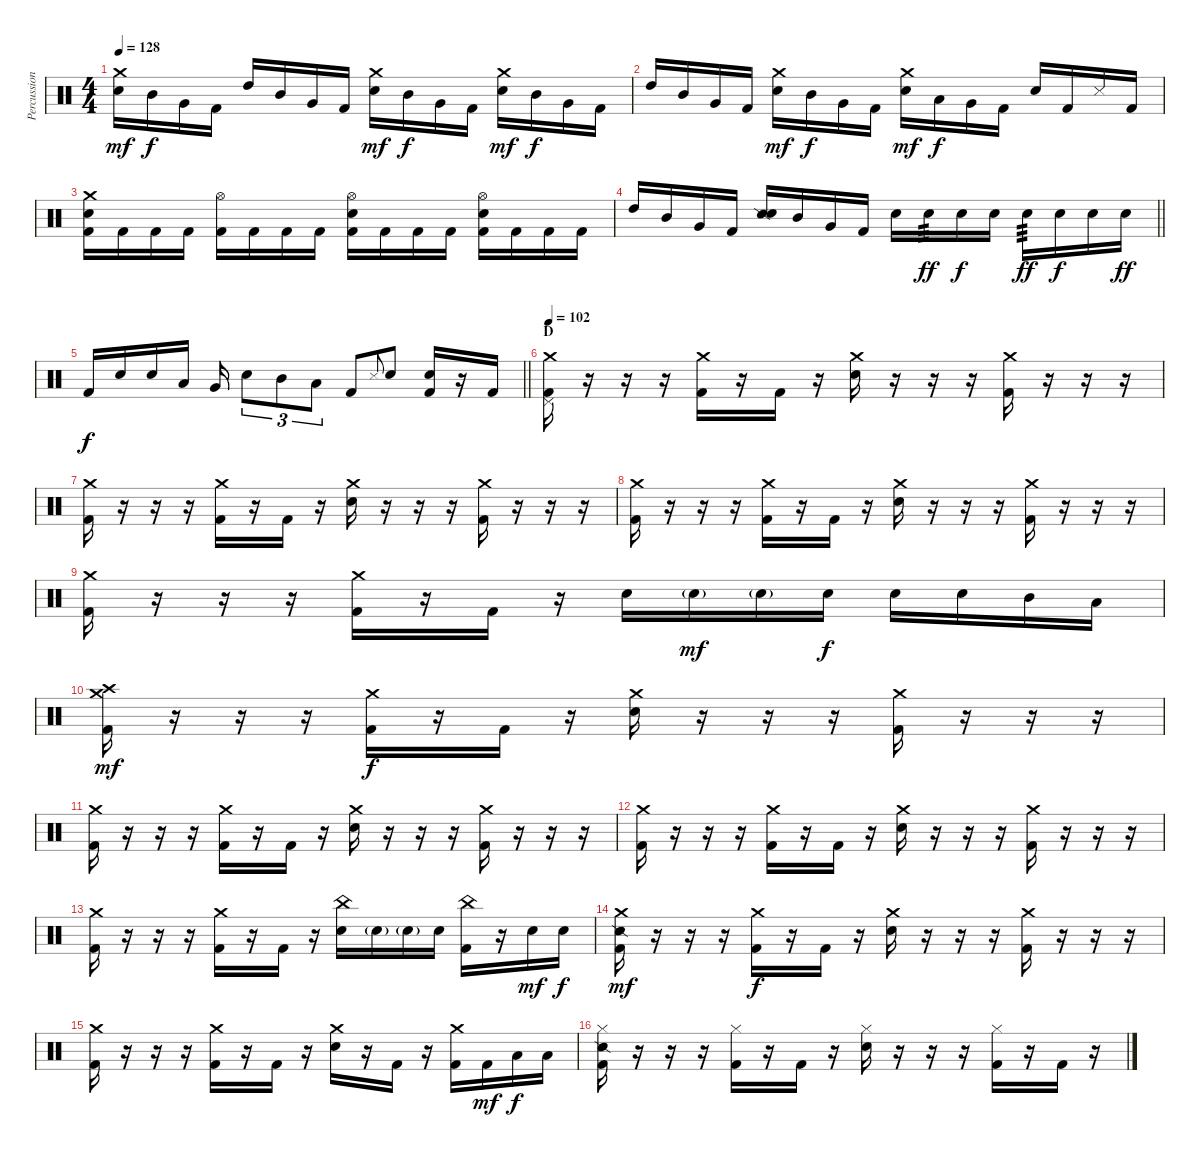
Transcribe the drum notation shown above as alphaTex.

\track ("Percussion" "Percussion") {instrument percussion}
\staff {score}
\articulation defaults
\ts (4 4)
\tempo 128
\clef neutral
\ks c
("Crash medium (hit)" "Snare (hit) 2").16{dy mf} "Mid Tom (hit)".16{dy f} "Very Low Tom (hit)".16 "Kick (hit) 2".16 "High Tom (hit)".16 "Mid Tom (hit)".16 "Very Low Tom (hit)".16 "Kick (hit) 2".16 ("Crash medium (hit)" "Snare (hit) 2").16{dy mf} "Mid Tom (hit)".16{dy f} "Very Low Tom (hit)".16 "Kick (hit) 2".16 ("Crash medium (hit)" "Snare (hit) 2").16{dy mf} "Mid Tom (hit)".16{dy f} "Very Low Tom (hit)".16 "Kick (hit) 2".16 |
"High Tom (hit)".16 "Mid Tom (hit)".16 "Very Low Tom (hit)".16 "Kick (hit) 2".16 ("Crash medium (hit)" "Snare (hit) 2").16{dy mf} "Mid Tom (hit)".16{dy f} "Very Low Tom (hit)".16 "Kick (hit) 2".16 ("Crash medium (hit)" "Snare (hit) 2").16{dy mf} "Low Tom (hit)".16{dy f} "Very Low Tom (hit)".16 "Kick (hit) 2".16 "Snare (hit) 2".16 "Kick (hit) 2".16 "Metronome (hit)".16 "Kick (hit) 2".16 |
("Crash medium (hit)" "Snare (hit) 2" "Kick (hit) 2").16 "Kick (hit) 2".16 "Kick (hit) 2".16 "Kick (hit) 2".16 ("Hi-Hat (open)" "Kick (hit) 2").16 "Kick (hit) 2".16 "Kick (hit) 2".16 "Kick (hit) 2".16 ("Hi-Hat (open)" "Snare (hit) 2" "Kick (hit) 2").16 "Kick (hit) 2".16 "Kick (hit) 2".16 "Kick (hit) 2".16 ("Hi-Hat (open)" "Snare (hit) 2" "Kick (hit) 2").16 "Kick (hit) 2".16 "Kick (hit) 2".16 "Kick (hit) 2".16 |
\barLineRight lightlight "High Tom (hit)".16 "Mid Tom (hit)".16 "Very Low Tom (hit)".16 "Kick (hit) 2".16
("Snare (side stick) 2" "Snare (hit) 2").16 "Mid Tom (hit)".16 "Very Low Tom (hit)".16 "Kick (hit) 2".16 "Snare (hit) 2".16 "Snare (hit) 2".16{tp 3 dy ff} "Snare (hit) 2".16{dy f} "Snare (hit) 2".16 "Snare (hit) 2".16{tp 3 dy ff} "Snare (hit) 2".16{dy f} "Snare (hit) 2".16 "Snare (hit) 2".16{dy ff} |
\barLineRight lightlight "Kick (hit) 2".16{dy f} "Snare (hit) 2".16 "Snare (hit) 2".16 "Low Tom (hit)".16 "Very Low Tom (hit)".16 "Snare (hit) 2".8{tu (3 2)} "Mid Tom (hit)".8{tu (3 2)} "Low Tom (hit)".8{tu (3 2)} "Kick (hit) 2".8 "Metronome (hit)".8{gr onbeat} "Snare (hit) 2".8
("Snare (hit)" "Kick (hit) 2").16 r.16 "Kick (hit) 2".16 |
\section ("" "D")
\tempo 102
("Crash medium (hit)" "Pedal Hi-Hat (hit)" "Kick (hit) 2").16 r.16 r.16 r.16 ("Crash medium (hit)" "Kick (hit) 2").16 r.16 "Kick (hit) 2".16 r.16 ("Crash medium (hit)" "Snare (hit) 2").16 r.16 r.16 r.16 ("Crash medium (hit)" "Kick (hit) 2").16 r.16 r.16 r.16 |
("Crash medium (hit)" "Kick (hit) 2").16 r.16 r.16 r.16 ("Crash medium (hit)" "Kick (hit) 2").16 r.16 "Kick (hit) 2".16 r.16 ("Crash medium (hit)" "Snare (hit) 2").16 r.16 r.16 r.16 ("Crash medium (hit)" "Kick (hit) 2").16 r.16 r.16 r.16 |
("Crash medium (hit)" "Kick (hit) 2").16 r.16 r.16 r.16 ("Crash medium (hit)" "Kick (hit) 2").16 r.16 "Kick (hit) 2".16 r.16 ("Crash medium (hit)" "Snare (hit) 2").16 r.16 r.16 r.16 ("Crash medium (hit)" "Kick (hit) 2").16 r.16 r.16 r.16 |
("Crash medium (hit)" "Kick (hit) 2").16 r.16 r.16 r.16 ("Crash medium (hit)" "Kick (hit) 2").16 r.16 "Kick (hit) 2".16 r.16 "Snare (hit) 2".16 "Snare (hit) 2"{g}.16{dy mf} "Snare (hit) 2"{g}.16 "Snare (hit) 2".16{dy f} "Snare (hit) 2".16 "Snare (hit) 2".16 "Mid Tom (hit)".16 "Low Tom (hit)".16 |
("Crash medium (hit)" "Crash high (hit)" "Kick (hit) 2").16{dy mf} r.16 r.16 r.16 ("Crash medium (hit)" "Kick (hit) 2").16{dy f} r.16 "Kick (hit) 2".16 r.16 ("Crash medium (hit)" "Snare (hit) 2").16 r.16 r.16 r.16 ("Crash medium (hit)" "Kick (hit) 2").16 r.16 r.16 r.16 |
("Crash medium (hit)" "Kick (hit) 2").16 r.16 r.16 r.16 ("Crash medium (hit)" "Kick (hit) 2").16 r.16 "Kick (hit) 2".16 r.16 ("Crash medium (hit)" "Snare (hit) 2").16 r.16 r.16 r.16 ("Crash medium (hit)" "Kick (hit) 2").16 r.16 r.16 r.16 |
("Crash medium (hit)" "Kick (hit) 2").16 r.16 r.16 r.16 ("Crash medium (hit)" "Kick (hit) 2").16 r.16 "Kick (hit) 2".16 r.16 ("Crash medium (hit)" "Snare (hit) 2").16 r.16 r.16 r.16 ("Crash medium (hit)" "Kick (hit) 2").16 r.16 r.16 r.16 |
("Crash medium (hit)" "Kick (hit) 2").16 r.16 r.16 r.16 ("Crash medium (hit)" "Kick (hit) 2").16 r.16 "Kick (hit) 2".16 r.16 ("China (hit)" "Snare (hit) 2").16 "Snare (hit) 2"{g}.16 "Snare (hit) 2"{g}.16 "Snare (hit) 2".16 ("China (hit)" "Kick (hit) 2").16 r.16 "Snare (hit) 2".16{dy mf} "Snare (hit) 2".16{dy f} |
("Crash medium (hit)" "Snare (side stick) 2" "Kick (hit) 2").16{dy mf} r.16 r.16 r.16 ("Crash medium (hit)" "Kick (hit) 2").16{dy f} r.16 "Kick (hit) 2".16 r.16 ("Crash medium (hit)" "Snare (hit) 2").16 r.16 r.16 r.16 ("Crash medium (hit)" "Kick (hit) 2").16 r.16 r.16 r.16 |
("Crash medium (hit)" "Kick (hit) 2").16 r.16 r.16 r.16 ("Crash medium (hit)" "Kick (hit) 2").16 r.16 "Kick (hit) 2".16 r.16 ("Crash medium (hit)" "Snare (hit) 2").16 r.16 "Kick (hit) 2".16 r.16 ("Crash medium (hit)" "Kick (hit) 2").16 "Kick (hit) 2".16{dy mf} "Low Tom (hit)".16{dy f} "Low Tom (hit)".16 |
("Hi-Hat (closed)" "Snare (side stick) 2" "Kick (hit) 2").16 r.16 r.16 r.16 ("Hi-Hat (closed)" "Kick (hit) 2").16 r.16 "Kick (hit) 2".16 r.16 ("Hi-Hat (closed)" "Snare (hit) 2").16 r.16 r.16 r.16 ("Hi-Hat (closed)" "Kick (hit) 2").16 r.16 "Kick (hit) 2".16 r.16
